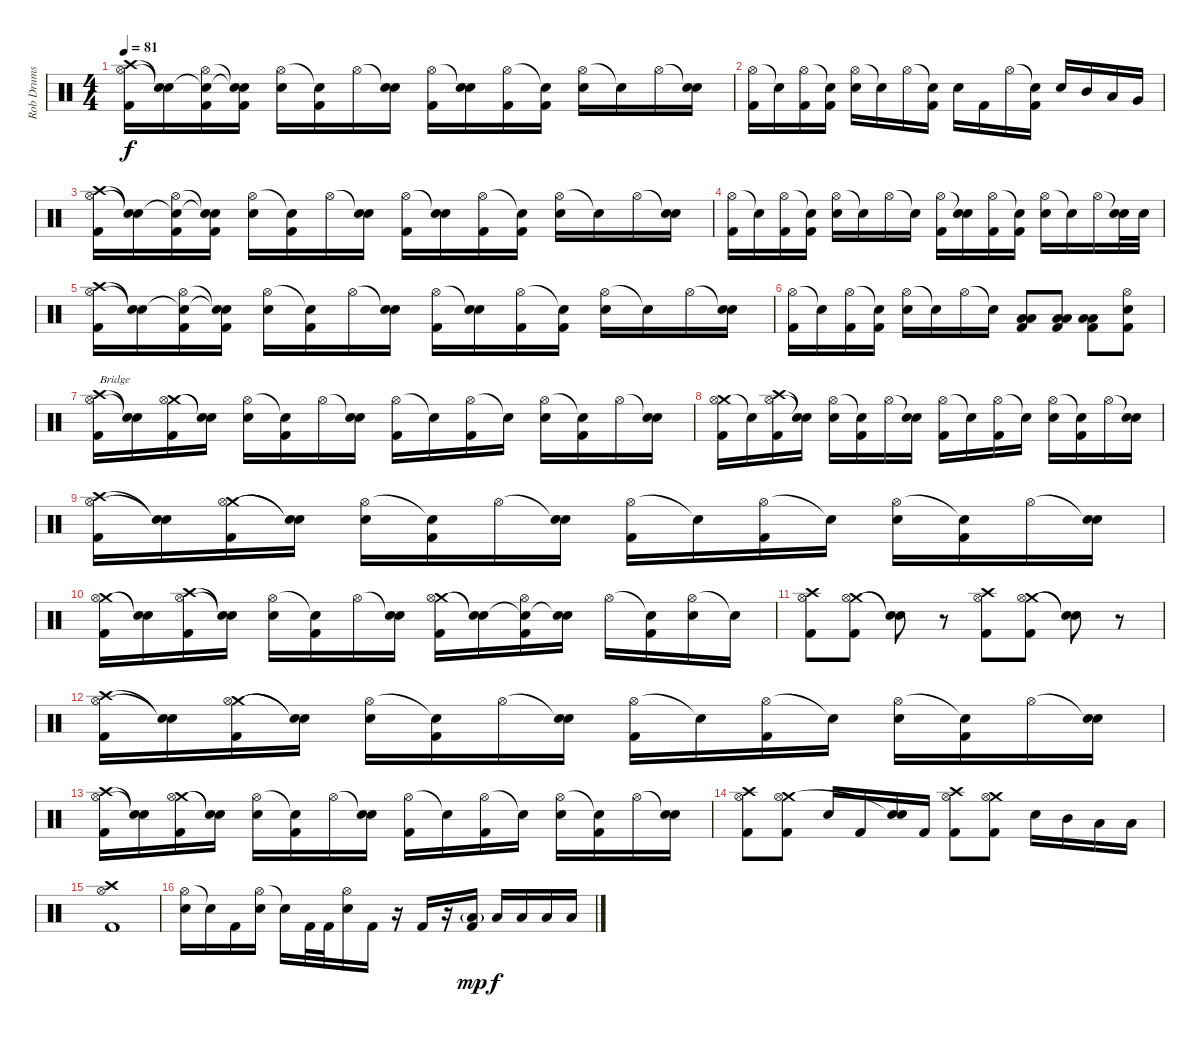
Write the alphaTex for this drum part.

\track ("Rob Drums" "Rob Drums") {instrument percussion}
\staff {score}
\articulation defaults
\ts (4 4)
\tempo 81
\clef neutral
\ks c
("Crash high (hit)" "Hi-Hat (open)" "Kick (hit) 2").16{dy f} ("Snare (hit)"{t} "Snare (hit)"{t}).16 ("Snare (hit)"{t} "Hi-Hat (open)" "Kick (hit) 2").16 ("Snare (hit)"{t} "Snare (hit)"{t} "Kick (hit) 2").16 ("Hi-Hat (open)" "Electric Snare (hit)").16 ("Snare (hit)"{t} "Kick (hit) 2").16 "Hi-Hat (open)".16 ("Snare (hit)"{t} "Electric Snare (hit)").16 ("Hi-Hat (open)" "Kick (hit) 2").16 ("Snare (hit)"{t} "Electric Snare (hit)").16 ("Hi-Hat (open)" "Kick (hit) 2").16 ("Snare (hit)"{t} "Kick (hit) 2").16 ("Hi-Hat (open)" "Electric Snare (hit)").16 "Snare (hit)"{t}.16 "Hi-Hat (open)".16 ("Snare (hit)"{t} "Electric Snare (hit)").16 |
("Hi-Hat (open)" "Kick (hit) 2").16 "Snare (hit)"{t}.16 ("Hi-Hat (open)" "Kick (hit) 2").16 ("Snare (hit)"{t} "Kick (hit) 2").16 ("Hi-Hat (open)" "Electric Snare (hit)").16 "Snare (hit)"{t}.16 "Hi-Hat (open)".16 ("Snare (hit)"{t} "Kick (hit) 2").16 "Electric Snare (hit)".16 "Kick (hit) 2".16 "Hi-Hat (open)".16 ("Snare (hit)"{t} "Kick (hit) 2").16 "Electric Snare (hit)".16 "Mid Tom (hit)".16 "Low Tom (hit)".16 "Very Low Tom (hit)".16 |
("Crash high (hit)" "Hi-Hat (open)" "Kick (hit) 2").16 ("Snare (hit)"{t} "Snare (hit)"{t}).16 ("Snare (hit)"{t} "Hi-Hat (open)" "Kick (hit) 2").16 ("Snare (hit)"{t} "Snare (hit)"{t} "Kick (hit) 2").16 ("Hi-Hat (open)" "Electric Snare (hit)").16 ("Snare (hit)"{t} "Kick (hit) 2").16 "Hi-Hat (open)".16 ("Snare (hit)"{t} "Electric Snare (hit)").16 ("Hi-Hat (open)" "Kick (hit) 2").16 ("Snare (hit)"{t} "Electric Snare (hit)").16 ("Hi-Hat (open)" "Kick (hit) 2").16 ("Snare (hit)"{t} "Kick (hit) 2").16 ("Hi-Hat (open)" "Electric Snare (hit)").16 "Snare (hit)"{t}.16 "Hi-Hat (open)".16 ("Snare (hit)"{t} "Electric Snare (hit)").16 |
("Hi-Hat (open)" "Kick (hit) 2").16 "Snare (hit)"{t}.16 ("Hi-Hat (open)" "Kick (hit) 2").16 ("Snare (hit)"{t} "Kick (hit) 2").16 ("Hi-Hat (open)" "Electric Snare (hit)").16 "Snare (hit)"{t}.16 "Hi-Hat (open)".16 "Snare (hit)"{t}.16 ("Hi-Hat (open)" "Kick (hit) 2").16 ("Snare (hit)"{t} "Electric Snare (hit)").16 ("Hi-Hat (open)" "Kick (hit) 2").16 ("Snare (hit)"{t} "Kick (hit) 2").16 ("Hi-Hat (open)" "Electric Snare (hit)").16 "Snare (hit)"{t}.16 "Hi-Hat (open)".16 ("Snare (hit)"{t} "Electric Snare (hit)").32 "Electric Snare (hit)".32 |
("Crash high (hit)" "Hi-Hat (open)" "Kick (hit) 2").16 ("Snare (hit)"{t} "Snare (hit)"{t}).16 ("Snare (hit)"{t} "Hi-Hat (open)" "Kick (hit) 2").16 ("Snare (hit)"{t} "Snare (hit)"{t} "Kick (hit) 2").16 ("Hi-Hat (open)" "Electric Snare (hit)").16 ("Snare (hit)"{t} "Kick (hit) 2").16 "Hi-Hat (open)".16 ("Snare (hit)"{t} "Electric Snare (hit)").16 ("Hi-Hat (open)" "Kick (hit) 2").16 ("Snare (hit)"{t} "Electric Snare (hit)").16 ("Hi-Hat (open)" "Kick (hit) 2").16 ("Snare (hit)"{t} "Kick (hit) 2").16 ("Hi-Hat (open)" "Electric Snare (hit)").16 "Snare (hit)"{t}.16 "Hi-Hat (open)".16 ("Snare (hit)"{t} "Electric Snare (hit)").16 |
("Hi-Hat (open)" "Kick (hit) 2").16 "Snare (hit)"{t}.16 ("Hi-Hat (open)" "Kick (hit) 2").16 ("Snare (hit)"{t} "Kick (hit) 2").16 ("Hi-Hat (open)" "Electric Snare (hit)").16 "Snare (hit)"{t}.16 "Hi-Hat (open)".16 "Snare (hit)"{t}.16 ("Low Floor Tom (hit)" "Low Tom (hit)" "Kick (hit) 2").8 ("Low Floor Tom (hit)" "Low Tom (hit)" "Kick (hit) 2").8 ("Low Floor Tom (hit)" "Low Tom (hit)" "Kick (hit) 2").8 ("Hi-Hat (open)" "Electric Snare (hit)" "Kick (hit) 2").8 |
("Crash high (hit)" "Hi-Hat (open)" "Kick (hit) 2").16{txt "Bridge"} ("Snare (hit)"{t} "Snare (hit)"{t}).16 ("Crash medium (hit)" "Hi-Hat (open)" "Kick (hit) 2").16 ("Snare (hit)"{t} "Snare (hit)"{t}).16 ("Hi-Hat (open)" "Electric Snare (hit)").16 ("Snare (hit)"{t} "Kick (hit) 2").16 "Hi-Hat (open)".16 ("Snare (hit)"{t} "Electric Snare (hit)").16 ("Hi-Hat (open)" "Kick (hit) 2").16 "Snare (hit)"{t}.16 ("Hi-Hat (open)" "Kick (hit) 2").16 "Snare (hit)"{t}.16 ("Hi-Hat (open)" "Electric Snare (hit)").16 ("Snare (hit)"{t} "Kick (hit) 2").16 "Hi-Hat (open)".16 ("Snare (hit)"{t} "Electric Snare (hit)").16 |
("Crash medium (hit)" "Hi-Hat (open)" "Kick (hit) 2").16 "Snare (hit)"{t}.16 ("Crash high (hit)" "Hi-Hat (open)" "Kick (hit) 2").16 ("Snare (hit)"{t} "Snare (hit)"{t}).16 ("Hi-Hat (open)" "Electric Snare (hit)").16 ("Snare (hit)"{t} "Kick (hit) 2").16 "Hi-Hat (open)".16 ("Snare (hit)"{t} "Electric Snare (hit)").16 ("Hi-Hat (open)" "Kick (hit) 2").16 "Snare (hit)"{t}.16 ("Hi-Hat (open)" "Kick (hit) 2").16 "Snare (hit)"{t}.16 ("Hi-Hat (open)" "Electric Snare (hit)").16 ("Snare (hit)"{t} "Kick (hit) 2").16 "Hi-Hat (open)".16 ("Snare (hit)"{t} "Electric Snare (hit)").16 |
("Crash high (hit)" "Hi-Hat (open)" "Kick (hit) 2").16 ("Snare (hit)"{t} "Snare (hit)"{t}).16 ("Crash medium (hit)" "Hi-Hat (open)" "Kick (hit) 2").16 ("Snare (hit)"{t} "Snare (hit)"{t}).16 ("Hi-Hat (open)" "Electric Snare (hit)").16 ("Snare (hit)"{t} "Kick (hit) 2").16 "Hi-Hat (open)".16 ("Snare (hit)"{t} "Electric Snare (hit)").16 ("Hi-Hat (open)" "Kick (hit) 2").16 "Snare (hit)"{t}.16 ("Hi-Hat (open)" "Kick (hit) 2").16 "Snare (hit)"{t}.16 ("Hi-Hat (open)" "Electric Snare (hit)").16 ("Snare (hit)"{t} "Kick (hit) 2").16 "Hi-Hat (open)".16 ("Snare (hit)"{t} "Electric Snare (hit)").16 |
("Crash medium (hit)" "Hi-Hat (open)" "Kick (hit) 2").16 ("Snare (hit)"{t} "Snare (hit)"{t}).16 ("Crash high (hit)" "Hi-Hat (open)" "Kick (hit) 2").16 ("Snare (hit)"{t} "Snare (hit)"{t}).16 ("Hi-Hat (open)" "Electric Snare (hit)").16 ("Snare (hit)"{t} "Kick (hit) 2").16 "Hi-Hat (open)".16 ("Snare (hit)"{t} "Electric Snare (hit)").16 ("Crash medium (hit)" "Hi-Hat (open)" "Kick (hit) 2").16 ("Snare (hit)"{t} "Snare (hit)"{t}).16 ("Snare (hit)"{t} "Hi-Hat (open)" "Kick (hit) 2").16 ("Snare (hit)"{t} "Electric Snare (hit)").16 "Hi-Hat (open)".16 ("Snare (hit)"{t} "Kick (hit) 2").16 ("Hi-Hat (open)" "Electric Snare (hit)").16 "Snare (hit)"{t}.16 |
("Crash high (hit)" "Hi-Hat (open)" "Kick (hit) 2").8 ("Crash medium (hit)" "Hi-Hat (open)" "Kick (hit) 2").8 ("Snare (hit)"{t} "Snare (hit)"{t}).8 r.8 ("Crash high (hit)" "Hi-Hat (open)" "Kick (hit) 2").8 ("Crash medium (hit)" "Hi-Hat (open)" "Kick (hit) 2").8 ("Snare (hit)"{t} "Snare (hit)"{t}).8 r.8 |
("Crash high (hit)" "Hi-Hat (open)" "Kick (hit) 2").16 ("Snare (hit)"{t} "Snare (hit)"{t}).16 ("Crash medium (hit)" "Hi-Hat (open)" "Kick (hit) 2").16 ("Snare (hit)"{t} "Snare (hit)"{t}).16 ("Hi-Hat (open)" "Electric Snare (hit)").16 ("Snare (hit)"{t} "Kick (hit) 2").16 "Hi-Hat (open)".16 ("Snare (hit)"{t} "Electric Snare (hit)").16 ("Hi-Hat (open)" "Kick (hit) 2").16 "Snare (hit)"{t}.16 ("Hi-Hat (open)" "Kick (hit) 2").16 "Snare (hit)"{t}.16 ("Hi-Hat (open)" "Electric Snare (hit)").16 ("Snare (hit)"{t} "Kick (hit) 2").16 "Hi-Hat (open)".16 ("Snare (hit)"{t} "Electric Snare (hit)").16 |
("Crash high (hit)" "Hi-Hat (open)" "Kick (hit) 2").16 ("Snare (hit)"{t} "Snare (hit)"{t}).16 ("Crash medium (hit)" "Hi-Hat (open)" "Kick (hit) 2").16 ("Snare (hit)"{t} "Snare (hit)"{t}).16 ("Hi-Hat (open)" "Electric Snare (hit)").16 ("Snare (hit)"{t} "Kick (hit) 2").16 "Hi-Hat (open)".16 ("Snare (hit)"{t} "Electric Snare (hit)").16 ("Hi-Hat (open)" "Kick (hit) 2").16 "Snare (hit)"{t}.16 ("Hi-Hat (open)" "Kick (hit) 2").16 "Snare (hit)"{t}.16 ("Hi-Hat (open)" "Electric Snare (hit)").16 ("Snare (hit)"{t} "Kick (hit) 2").16 "Hi-Hat (open)".16 ("Snare (hit)"{t} "Electric Snare (hit)").16 |
("Crash high (hit)" "Hi-Hat (open)" "Kick (hit) 2").8 ("Crash medium (hit)" "Hi-Hat (open)" "Kick (hit) 2").8 "Electric Snare (hit)".16 "Kick (hit) 2".16 ("Electric Snare (hit)" "Snare (hit)"{t}).16 "Kick (hit) 2".16 ("Crash high (hit)" "Hi-Hat (open)" "Kick (hit) 2").8 ("Crash medium (hit)" "Hi-Hat (open)" "Kick (hit) 2").8 "Electric Snare (hit)".16 "Mid Tom (hit)".16 "Low Tom (hit)".16 "Low Floor Tom (hit)".16 |
("Crash high (hit)" "Hi-Hat (open)" "Kick (hit) 2").1 |
("Hi-Hat (open)" "Electric Snare (hit)").16 "Snare (hit)"{t}.16 "Kick (hit) 2".16 ("Hi-Hat (open)" "Electric Snare (hit)").16 "Snare (hit)"{t}.16 "Kick (hit) 2".32 "Kick (hit) 2".32 ("Hi-Hat (open)" "Electric Snare (hit)").16 "Kick (hit) 2".16 r.16 "Kick (hit) 2".16 r.16 ("Low Tom (hit)"{g} "Kick (hit) 2").16{dy mp} "Low Tom (hit)".16{dy f} "Low Tom (hit)".16 "Low Tom (hit)".16 "Low Tom (hit)".16
